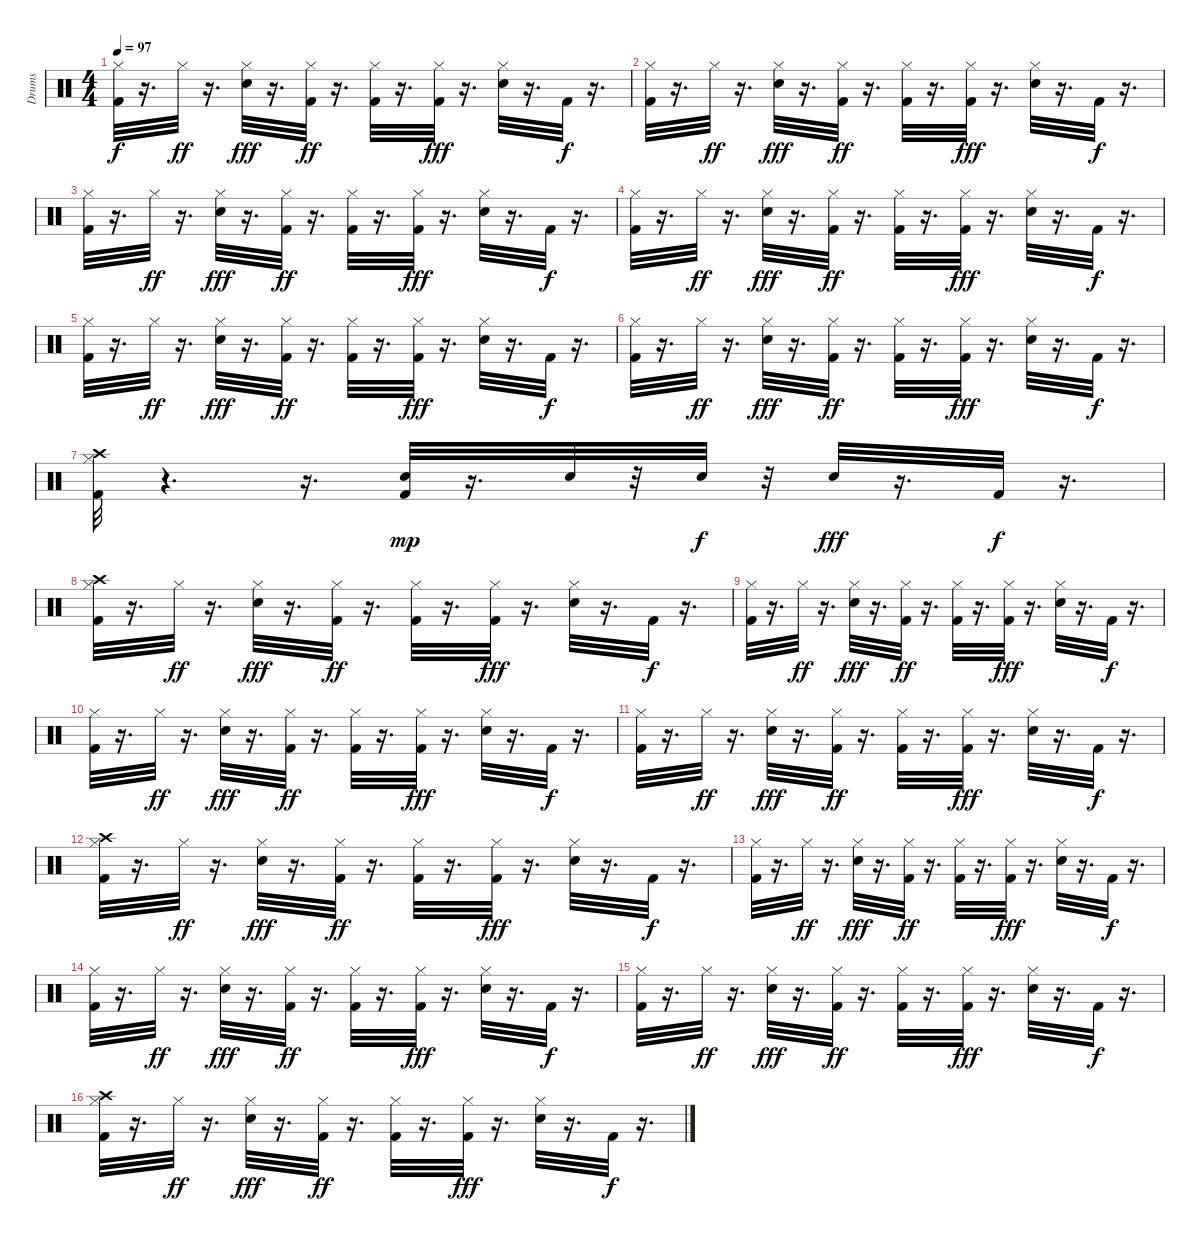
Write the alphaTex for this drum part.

\track ("Drums" "Drums") {instrument percussion}
\staff {score}
\articulation defaults
\ts (4 4)
\tempo 97
\clef neutral
\ks c
("Hi-Hat (closed)" "Kick (hit) 2").32{dy f} r.16{d} "Hi-Hat (closed)".32{dy ff} r.16{d} ("Hi-Hat (closed)" "Electric Snare (hit)").32{dy fff} r.16{d} ("Hi-Hat (closed)" "Kick (hit) 2").32{dy ff} r.16{d} ("Hi-Hat (closed)" "Kick (hit) 2").32 r.16{d} ("Hi-Hat (closed)" "Kick (hit) 2").32{dy fff} r.16{d} ("Hi-Hat (closed)" "Electric Snare (hit)").32 r.16{d} "Kick (hit) 2".32{dy f} r.16{d} |
("Hi-Hat (closed)" "Kick (hit) 2").32 r.16{d} "Hi-Hat (closed)".32{dy ff} r.16{d} ("Hi-Hat (closed)" "Electric Snare (hit)").32{dy fff} r.16{d} ("Hi-Hat (closed)" "Kick (hit) 2").32{dy ff} r.16{d} ("Hi-Hat (closed)" "Kick (hit) 2").32 r.16{d} ("Hi-Hat (closed)" "Kick (hit) 2").32{dy fff} r.16{d} ("Hi-Hat (closed)" "Electric Snare (hit)").32 r.16{d} "Kick (hit) 2".32{dy f} r.16{d} |
("Hi-Hat (closed)" "Kick (hit) 2").32 r.16{d} "Hi-Hat (closed)".32{dy ff} r.16{d} ("Hi-Hat (closed)" "Electric Snare (hit)").32{dy fff} r.16{d} ("Hi-Hat (closed)" "Kick (hit) 2").32{dy ff} r.16{d} ("Hi-Hat (closed)" "Kick (hit) 2").32 r.16{d} ("Hi-Hat (closed)" "Kick (hit) 2").32{dy fff} r.16{d} ("Hi-Hat (closed)" "Electric Snare (hit)").32 r.16{d} "Kick (hit) 2".32{dy f} r.16{d} |
("Hi-Hat (closed)" "Kick (hit) 2").32 r.16{d} "Hi-Hat (closed)".32{dy ff} r.16{d} ("Hi-Hat (closed)" "Electric Snare (hit)").32{dy fff} r.16{d} ("Hi-Hat (closed)" "Kick (hit) 2").32{dy ff} r.16{d} ("Hi-Hat (closed)" "Kick (hit) 2").32 r.16{d} ("Hi-Hat (closed)" "Kick (hit) 2").32{dy fff} r.16{d} ("Hi-Hat (closed)" "Electric Snare (hit)").32 r.16{d} "Kick (hit) 2".32{dy f} r.16{d} |
("Hi-Hat (closed)" "Kick (hit) 2").32 r.16{d} "Hi-Hat (closed)".32{dy ff} r.16{d} ("Hi-Hat (closed)" "Electric Snare (hit)").32{dy fff} r.16{d} ("Hi-Hat (closed)" "Kick (hit) 2").32{dy ff} r.16{d} ("Hi-Hat (closed)" "Kick (hit) 2").32 r.16{d} ("Hi-Hat (closed)" "Kick (hit) 2").32{dy fff} r.16{d} ("Hi-Hat (closed)" "Electric Snare (hit)").32 r.16{d} "Kick (hit) 2".32{dy f} r.16{d} |
("Hi-Hat (closed)" "Kick (hit) 2").32 r.16{d} "Hi-Hat (closed)".32{dy ff} r.16{d} ("Hi-Hat (closed)" "Electric Snare (hit)").32{dy fff} r.16{d} ("Hi-Hat (closed)" "Kick (hit) 2").32{dy ff} r.16{d} ("Hi-Hat (closed)" "Kick (hit) 2").32 r.16{d} ("Hi-Hat (closed)" "Kick (hit) 2").32{dy fff} r.16{d} ("Hi-Hat (closed)" "Electric Snare (hit)").32 r.16{d} "Kick (hit) 2".32{dy f} r.16{d} |
("Crash high (hit)" "Hi-Hat (closed)" "Kick (hit) 2").32 r.4{d} r.16{d} ("Electric Snare (hit)" "Kick (hit) 2").32{dy mp} r.16{d} "Electric Snare (hit)".32 r.32 "Electric Snare (hit)".32{dy f} r.32 "Electric Snare (hit)".32{dy fff} r.16{d} "Kick (hit) 2".32{dy f} r.16{d} |
("Crash high (hit)" "Hi-Hat (closed)" "Kick (hit) 2").32 r.16{d} "Hi-Hat (closed)".32{dy ff} r.16{d} ("Hi-Hat (closed)" "Electric Snare (hit)").32{dy fff} r.16{d} ("Hi-Hat (closed)" "Kick (hit) 2").32{dy ff} r.16{d} ("Hi-Hat (closed)" "Kick (hit) 2").32 r.16{d} ("Hi-Hat (closed)" "Kick (hit) 2").32{dy fff} r.16{d} ("Hi-Hat (closed)" "Electric Snare (hit)").32 r.16{d} "Kick (hit) 2".32{dy f} r.16{d} |
("Hi-Hat (closed)" "Kick (hit) 2").32 r.16{d} "Hi-Hat (closed)".32{dy ff} r.16{d} ("Hi-Hat (closed)" "Electric Snare (hit)").32{dy fff} r.16{d} ("Hi-Hat (closed)" "Kick (hit) 2").32{dy ff} r.16{d} ("Hi-Hat (closed)" "Kick (hit) 2").32 r.16{d} ("Hi-Hat (closed)" "Kick (hit) 2").32{dy fff} r.16{d} ("Hi-Hat (closed)" "Electric Snare (hit)").32 r.16{d} "Kick (hit) 2".32{dy f} r.16{d} |
("Hi-Hat (closed)" "Kick (hit) 2").32 r.16{d} "Hi-Hat (closed)".32{dy ff} r.16{d} ("Hi-Hat (closed)" "Electric Snare (hit)").32{dy fff} r.16{d} ("Hi-Hat (closed)" "Kick (hit) 2").32{dy ff} r.16{d} ("Hi-Hat (closed)" "Kick (hit) 2").32 r.16{d} ("Hi-Hat (closed)" "Kick (hit) 2").32{dy fff} r.16{d} ("Hi-Hat (closed)" "Electric Snare (hit)").32 r.16{d} "Kick (hit) 2".32{dy f} r.16{d} |
("Hi-Hat (closed)" "Kick (hit) 2").32 r.16{d} "Hi-Hat (closed)".32{dy ff} r.16{d} ("Hi-Hat (closed)" "Electric Snare (hit)").32{dy fff} r.16{d} ("Hi-Hat (closed)" "Kick (hit) 2").32{dy ff} r.16{d} ("Hi-Hat (closed)" "Kick (hit) 2").32 r.16{d} ("Hi-Hat (closed)" "Kick (hit) 2").32{dy fff} r.16{d} ("Hi-Hat (closed)" "Electric Snare (hit)").32 r.16{d} "Kick (hit) 2".32{dy f} r.16{d} |
("Crash high (hit)" "Hi-Hat (closed)" "Kick (hit) 2").32 r.16{d} "Hi-Hat (closed)".32{dy ff} r.16{d} ("Hi-Hat (closed)" "Electric Snare (hit)").32{dy fff} r.16{d} ("Hi-Hat (closed)" "Kick (hit) 2").32{dy ff} r.16{d} ("Hi-Hat (closed)" "Kick (hit) 2").32 r.16{d} ("Hi-Hat (closed)" "Kick (hit) 2").32{dy fff} r.16{d} ("Hi-Hat (closed)" "Electric Snare (hit)").32 r.16{d} "Kick (hit) 2".32{dy f} r.16{d} |
("Hi-Hat (closed)" "Kick (hit) 2").32 r.16{d} "Hi-Hat (closed)".32{dy ff} r.16{d} ("Hi-Hat (closed)" "Electric Snare (hit)").32{dy fff} r.16{d} ("Hi-Hat (closed)" "Kick (hit) 2").32{dy ff} r.16{d} ("Hi-Hat (closed)" "Kick (hit) 2").32 r.16{d} ("Hi-Hat (closed)" "Kick (hit) 2").32{dy fff} r.16{d} ("Hi-Hat (closed)" "Electric Snare (hit)").32 r.16{d} "Kick (hit) 2".32{dy f} r.16{d} |
("Hi-Hat (closed)" "Kick (hit) 2").32 r.16{d} "Hi-Hat (closed)".32{dy ff} r.16{d} ("Hi-Hat (closed)" "Electric Snare (hit)").32{dy fff} r.16{d} ("Hi-Hat (closed)" "Kick (hit) 2").32{dy ff} r.16{d} ("Hi-Hat (closed)" "Kick (hit) 2").32 r.16{d} ("Hi-Hat (closed)" "Kick (hit) 2").32{dy fff} r.16{d} ("Hi-Hat (closed)" "Electric Snare (hit)").32 r.16{d} "Kick (hit) 2".32{dy f} r.16{d} |
("Hi-Hat (closed)" "Kick (hit) 2").32 r.16{d} "Hi-Hat (closed)".32{dy ff} r.16{d} ("Hi-Hat (closed)" "Electric Snare (hit)").32{dy fff} r.16{d} ("Hi-Hat (closed)" "Kick (hit) 2").32{dy ff} r.16{d} ("Hi-Hat (closed)" "Kick (hit) 2").32 r.16{d} ("Hi-Hat (closed)" "Kick (hit) 2").32{dy fff} r.16{d} ("Hi-Hat (closed)" "Electric Snare (hit)").32 r.16{d} "Kick (hit) 2".32{dy f} r.16{d} |
("Crash high (hit)" "Hi-Hat (closed)" "Kick (hit) 2").32 r.16{d} "Hi-Hat (closed)".32{dy ff} r.16{d} ("Hi-Hat (closed)" "Electric Snare (hit)").32{dy fff} r.16{d} ("Hi-Hat (closed)" "Kick (hit) 2").32{dy ff} r.16{d} ("Hi-Hat (closed)" "Kick (hit) 2").32 r.16{d} ("Hi-Hat (closed)" "Kick (hit) 2").32{dy fff} r.16{d} ("Hi-Hat (closed)" "Electric Snare (hit)").32 r.16{d} "Kick (hit) 2".32{dy f} r.16{d}
